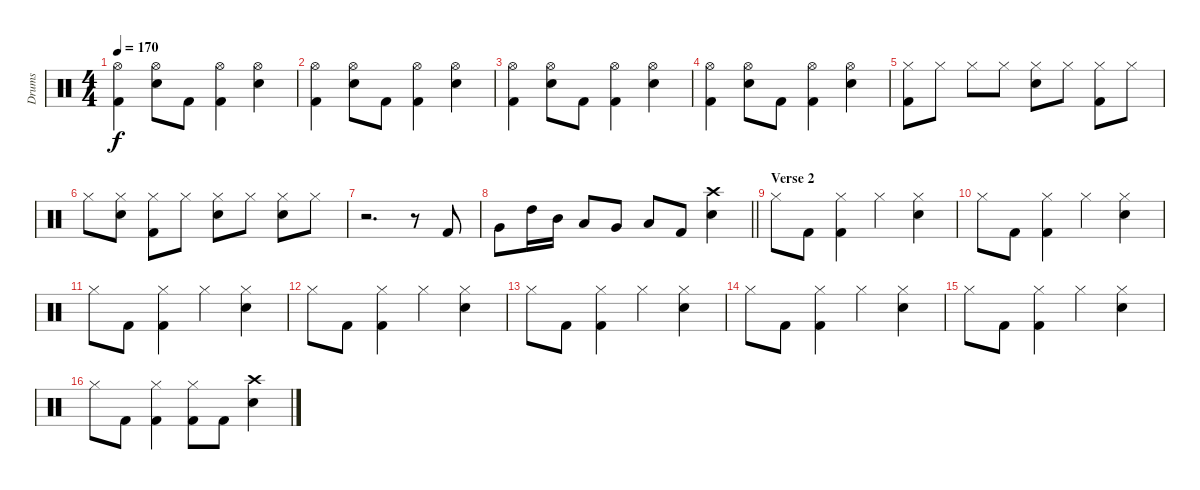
\track ("Drums" "Drums") {instrument percussion}
\staff {score}
\articulation defaults
\ts (4 4)
\tempo 170
\clef neutral
\ks c
("Hi-Hat (open)" "Kick (hit) 2").4{dy f} ("Hi-Hat (open)" "Electric Snare (hit)").8 "Kick (hit) 2".8 ("Hi-Hat (open)" "Kick (hit) 2").4 ("Hi-Hat (open)" "Electric Snare (hit)").4 |
("Hi-Hat (open)" "Kick (hit) 2").4 ("Hi-Hat (open)" "Electric Snare (hit)").8 "Kick (hit) 2".8 ("Hi-Hat (open)" "Kick (hit) 2").4 ("Hi-Hat (open)" "Electric Snare (hit)").4 |
("Hi-Hat (open)" "Kick (hit) 2").4 ("Hi-Hat (open)" "Electric Snare (hit)").8 "Kick (hit) 2".8 ("Hi-Hat (open)" "Kick (hit) 2").4 ("Hi-Hat (open)" "Electric Snare (hit)").4 |
("Hi-Hat (open)" "Kick (hit) 2").4 ("Hi-Hat (open)" "Electric Snare (hit)").8 "Kick (hit) 2".8 ("Hi-Hat (open)" "Kick (hit) 2").4 ("Hi-Hat (open)" "Electric Snare (hit)").4 |
("Hi-Hat (closed)" "Kick (hit) 2").8 "Hi-Hat (closed)".8 "Hi-Hat (closed)".8 "Hi-Hat (closed)".8 ("Hi-Hat (closed)" "Electric Snare (hit)").8 "Hi-Hat (closed)".8 ("Hi-Hat (closed)" "Kick (hit) 2").8 "Hi-Hat (closed)".8 |
"Hi-Hat (closed)".8 ("Hi-Hat (closed)" "Electric Snare (hit)").8 ("Hi-Hat (closed)" "Kick (hit) 2").8 "Hi-Hat (closed)".8 ("Hi-Hat (closed)" "Electric Snare (hit)").8 "Hi-Hat (closed)".8 ("Hi-Hat (closed)" "Electric Snare (hit)").8 "Hi-Hat (closed)".8 |
r.2{d} r.8 "Kick (hit) 2".8 |
\barLineRight lightlight "Very Low Tom (hit)".8 "High Tom (hit)".16 "Mid Tom (hit)".16 "Low Tom (hit)".8 "Very Low Tom (hit)".8 "Low Floor Tom (hit)".8 "Kick (hit) 2".8
("Crash high (hit)" "Electric Snare (hit)").4 |
\section ("" "Verse 2")
"Hi-Hat (closed)".8 "Kick (hit) 2".8 ("Hi-Hat (closed)" "Kick (hit) 2").4 "Hi-Hat (closed)".4 ("Hi-Hat (closed)" "Electric Snare (hit)").4 |
"Hi-Hat (closed)".8 "Kick (hit) 2".8 ("Hi-Hat (closed)" "Kick (hit) 2").4 "Hi-Hat (closed)".4 ("Hi-Hat (closed)" "Electric Snare (hit)").4 |
"Hi-Hat (closed)".8 "Kick (hit) 2".8 ("Hi-Hat (closed)" "Kick (hit) 2").4 "Hi-Hat (closed)".4 ("Hi-Hat (closed)" "Electric Snare (hit)").4 |
"Hi-Hat (closed)".8 "Kick (hit) 2".8 ("Hi-Hat (closed)" "Kick (hit) 2").4 "Hi-Hat (closed)".4 ("Hi-Hat (closed)" "Electric Snare (hit)").4 |
"Hi-Hat (closed)".8 "Kick (hit) 2".8 ("Hi-Hat (closed)" "Kick (hit) 2").4 "Hi-Hat (closed)".4 ("Hi-Hat (closed)" "Electric Snare (hit)").4 |
"Hi-Hat (closed)".8 "Kick (hit) 2".8 ("Hi-Hat (closed)" "Kick (hit) 2").4 "Hi-Hat (closed)".4 ("Hi-Hat (closed)" "Electric Snare (hit)").4 |
"Hi-Hat (closed)".8 "Kick (hit) 2".8 ("Hi-Hat (closed)" "Kick (hit) 2").4 "Hi-Hat (closed)".4 ("Hi-Hat (closed)" "Electric Snare (hit)").4 |
"Hi-Hat (closed)".8 "Kick (hit) 2".8 ("Hi-Hat (closed)" "Kick (hit) 2").4 ("Hi-Hat (closed)" "Kick (hit) 2").8 "Kick (hit) 2".8 ("Crash high (hit)" "Electric Snare (hit)").4
